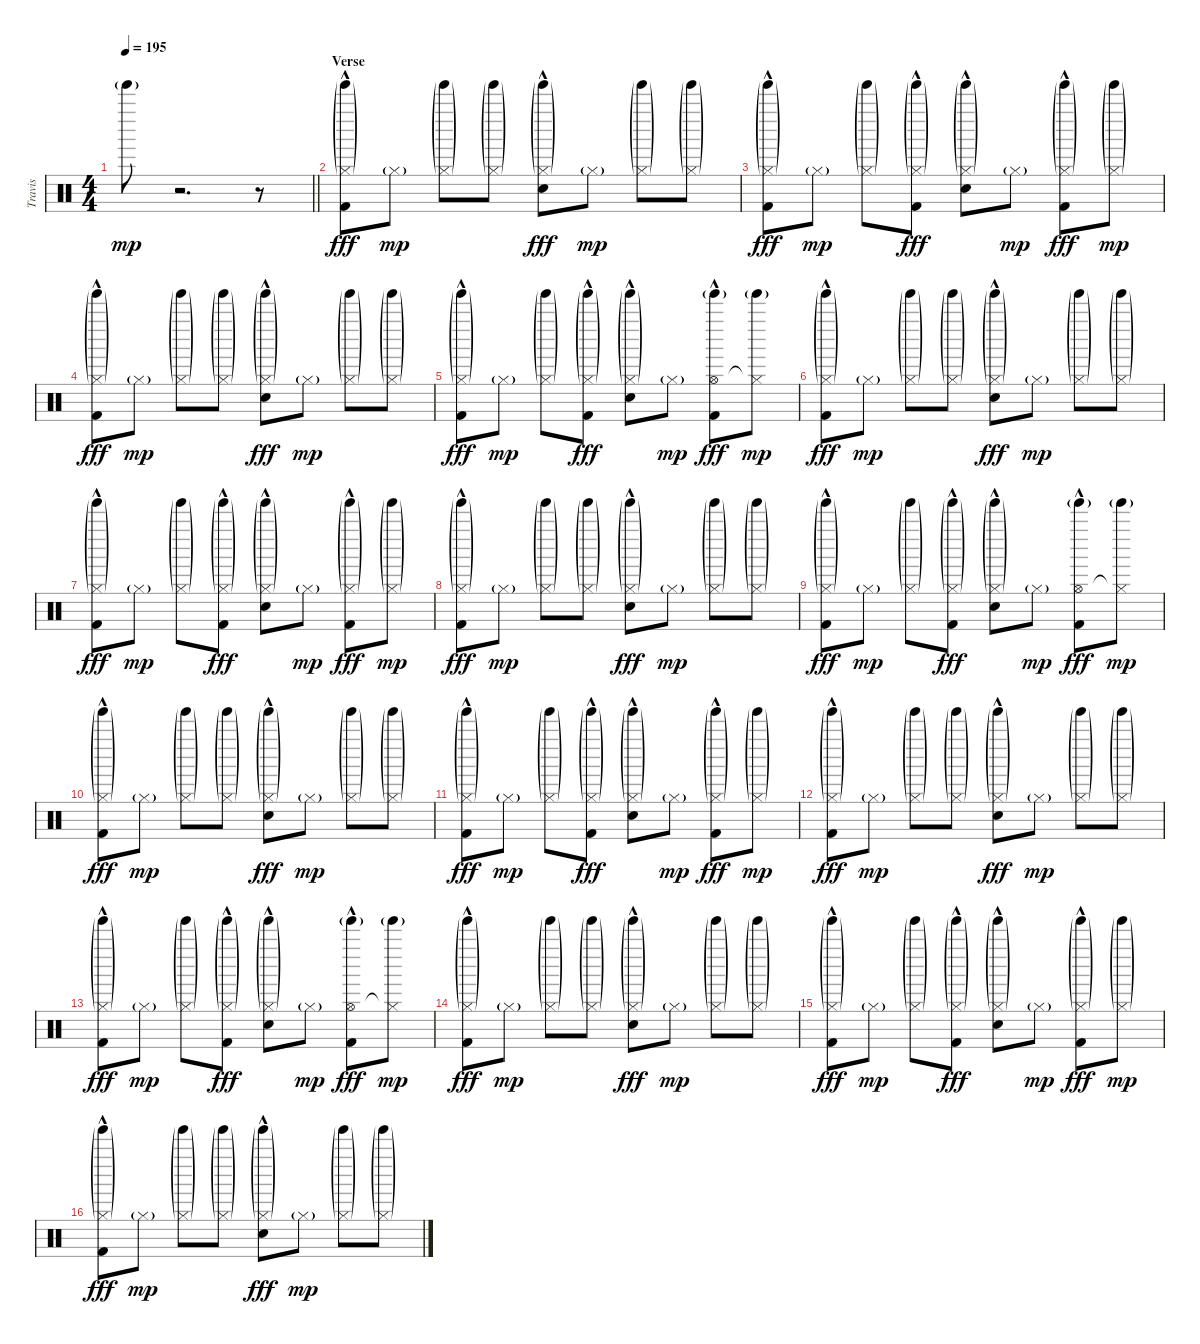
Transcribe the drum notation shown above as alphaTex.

\track ("Travis" "Travis") {instrument percussion}
\staff {score}
\articulation defaults
\ts (4 4)
\tempo 195
\clef neutral
\barLineRight lightlight
\ks c "Tinkle Bell (hit)"{g}.8{dy mp}
r.2{d} r.8 |
\section ("" "Verse")
("Tinkle Bell (hit)"{g} "Hi-Hat (closed)"{g} "Kick (hit) 2"{hac}).8{dy fff volume 9} "Hi-Hat (closed)"{g}.8{dy mp} ("Tinkle Bell (hit)"{g} "Hi-Hat (closed)"{g}).8 ("Tinkle Bell (hit)"{g} "Hi-Hat (closed)"{g}).8 ("Tinkle Bell (hit)"{g} "Hi-Hat (closed)"{g} "Electric Snare (hit)"{hac}).8{dy fff} "Hi-Hat (closed)"{g}.8{dy mp} ("Tinkle Bell (hit)"{g} "Hi-Hat (closed)"{g}).8 ("Tinkle Bell (hit)"{g} "Hi-Hat (closed)"{g}).8 |
("Tinkle Bell (hit)"{g} "Hi-Hat (closed)"{g} "Kick (hit) 2"{hac}).8{dy fff} "Hi-Hat (closed)"{g}.8{dy mp} ("Tinkle Bell (hit)"{g} "Hi-Hat (closed)"{g}).8 ("Tinkle Bell (hit)"{g} "Hi-Hat (closed)"{g} "Kick (hit) 2"{hac}).8{dy fff} ("Tinkle Bell (hit)"{g} "Hi-Hat (closed)"{g} "Electric Snare (hit)"{hac}).8 "Hi-Hat (closed)"{g}.8{dy mp} ("Tinkle Bell (hit)"{g} "Hi-Hat (closed)"{g} "Kick (hit) 2"{hac}).8{dy fff} ("Tinkle Bell (hit)"{g} "Hi-Hat (closed)"{g}).8{dy mp} |
("Tinkle Bell (hit)"{g} "Hi-Hat (closed)"{g} "Kick (hit) 2"{hac}).8{dy fff} "Hi-Hat (closed)"{g}.8{dy mp} ("Tinkle Bell (hit)"{g} "Hi-Hat (closed)"{g}).8 ("Tinkle Bell (hit)"{g} "Hi-Hat (closed)"{g}).8 ("Tinkle Bell (hit)"{g} "Hi-Hat (closed)"{g} "Electric Snare (hit)"{hac}).8{dy fff} "Hi-Hat (closed)"{g}.8{dy mp} ("Tinkle Bell (hit)"{g} "Hi-Hat (closed)"{g}).8 ("Tinkle Bell (hit)"{g} "Hi-Hat (closed)"{g}).8 |
("Tinkle Bell (hit)"{g} "Hi-Hat (closed)"{g} "Kick (hit) 2"{hac}).8{dy fff} "Hi-Hat (closed)"{g}.8{dy mp} ("Tinkle Bell (hit)"{g} "Hi-Hat (closed)"{g}).8 ("Tinkle Bell (hit)"{g} "Hi-Hat (closed)"{g} "Kick (hit) 2"{hac}).8{dy fff} ("Tinkle Bell (hit)"{g} "Hi-Hat (closed)"{g} "Electric Snare (hit)"{hac}).8 "Hi-Hat (closed)"{g}.8{dy mp} ("Tinkle Bell (hit)"{g} "Hi-Hat (open)" "Kick (hit) 2"{hac}).8{dy fff} ("Tinkle Bell (hit)"{g} "Hi-Hat (closed)"{t}).8{dy mp} |
("Tinkle Bell (hit)"{g} "Hi-Hat (closed)"{g} "Kick (hit) 2"{hac}).8{dy fff} "Hi-Hat (closed)"{g}.8{dy mp} ("Tinkle Bell (hit)"{g} "Hi-Hat (closed)"{g}).8 ("Tinkle Bell (hit)"{g} "Hi-Hat (closed)"{g}).8 ("Tinkle Bell (hit)"{g} "Hi-Hat (closed)"{g} "Electric Snare (hit)"{hac}).8{dy fff} "Hi-Hat (closed)"{g}.8{dy mp} ("Tinkle Bell (hit)"{g} "Hi-Hat (closed)"{g}).8 ("Tinkle Bell (hit)"{g} "Hi-Hat (closed)"{g}).8 |
("Tinkle Bell (hit)"{g} "Hi-Hat (closed)"{g} "Kick (hit) 2"{hac}).8{dy fff} "Hi-Hat (closed)"{g}.8{dy mp} ("Tinkle Bell (hit)"{g} "Hi-Hat (closed)"{g}).8 ("Tinkle Bell (hit)"{g} "Hi-Hat (closed)"{g} "Kick (hit) 2"{hac}).8{dy fff} ("Tinkle Bell (hit)"{g} "Hi-Hat (closed)"{g} "Electric Snare (hit)"{hac}).8 "Hi-Hat (closed)"{g}.8{dy mp} ("Tinkle Bell (hit)"{g} "Hi-Hat (closed)"{g} "Kick (hit) 2"{hac}).8{dy fff} ("Tinkle Bell (hit)"{g} "Hi-Hat (closed)"{g}).8{dy mp} |
("Tinkle Bell (hit)"{g} "Hi-Hat (closed)"{g} "Kick (hit) 2"{hac}).8{dy fff} "Hi-Hat (closed)"{g}.8{dy mp} ("Tinkle Bell (hit)"{g} "Hi-Hat (closed)"{g}).8 ("Tinkle Bell (hit)"{g} "Hi-Hat (closed)"{g}).8 ("Tinkle Bell (hit)"{g} "Hi-Hat (closed)"{g} "Electric Snare (hit)"{hac}).8{dy fff} "Hi-Hat (closed)"{g}.8{dy mp} ("Tinkle Bell (hit)"{g} "Hi-Hat (closed)"{g}).8 ("Tinkle Bell (hit)"{g} "Hi-Hat (closed)"{g}).8 |
("Tinkle Bell (hit)"{g} "Hi-Hat (closed)"{g} "Kick (hit) 2"{hac}).8{dy fff} "Hi-Hat (closed)"{g}.8{dy mp} ("Tinkle Bell (hit)"{g} "Hi-Hat (closed)"{g}).8 ("Tinkle Bell (hit)"{g} "Hi-Hat (closed)"{g} "Kick (hit) 2"{hac}).8{dy fff} ("Tinkle Bell (hit)"{g} "Hi-Hat (closed)"{g} "Electric Snare (hit)"{hac}).8 "Hi-Hat (closed)"{g}.8{dy mp} ("Tinkle Bell (hit)"{g} "Hi-Hat (open)" "Kick (hit) 2"{hac}).8{dy fff} ("Tinkle Bell (hit)"{g} "Hi-Hat (closed)"{t}).8{dy mp} |
("Tinkle Bell (hit)"{g} "Hi-Hat (closed)"{g} "Kick (hit) 2"{hac}).8{dy fff} "Hi-Hat (closed)"{g}.8{dy mp} ("Tinkle Bell (hit)"{g} "Hi-Hat (closed)"{g}).8 ("Tinkle Bell (hit)"{g} "Hi-Hat (closed)"{g}).8 ("Tinkle Bell (hit)"{g} "Hi-Hat (closed)"{g} "Electric Snare (hit)"{hac}).8{dy fff} "Hi-Hat (closed)"{g}.8{dy mp} ("Tinkle Bell (hit)"{g} "Hi-Hat (closed)"{g}).8 ("Tinkle Bell (hit)"{g} "Hi-Hat (closed)"{g}).8 |
("Tinkle Bell (hit)"{g} "Hi-Hat (closed)"{g} "Kick (hit) 2"{hac}).8{dy fff} "Hi-Hat (closed)"{g}.8{dy mp} ("Tinkle Bell (hit)"{g} "Hi-Hat (closed)"{g}).8 ("Tinkle Bell (hit)"{g} "Hi-Hat (closed)"{g} "Kick (hit) 2"{hac}).8{dy fff} ("Tinkle Bell (hit)"{g} "Hi-Hat (closed)"{g} "Electric Snare (hit)"{hac}).8 "Hi-Hat (closed)"{g}.8{dy mp} ("Tinkle Bell (hit)"{g} "Hi-Hat (closed)"{g} "Kick (hit) 2"{hac}).8{dy fff} ("Tinkle Bell (hit)"{g} "Hi-Hat (closed)"{g}).8{dy mp} |
("Tinkle Bell (hit)"{g} "Hi-Hat (closed)"{g} "Kick (hit) 2"{hac}).8{dy fff} "Hi-Hat (closed)"{g}.8{dy mp} ("Tinkle Bell (hit)"{g} "Hi-Hat (closed)"{g}).8 ("Tinkle Bell (hit)"{g} "Hi-Hat (closed)"{g}).8 ("Tinkle Bell (hit)"{g} "Hi-Hat (closed)"{g} "Electric Snare (hit)"{hac}).8{dy fff} "Hi-Hat (closed)"{g}.8{dy mp} ("Tinkle Bell (hit)"{g} "Hi-Hat (closed)"{g}).8 ("Tinkle Bell (hit)"{g} "Hi-Hat (closed)"{g}).8 |
("Tinkle Bell (hit)"{g} "Hi-Hat (closed)"{g} "Kick (hit) 2"{hac}).8{dy fff} "Hi-Hat (closed)"{g}.8{dy mp} ("Tinkle Bell (hit)"{g} "Hi-Hat (closed)"{g}).8 ("Tinkle Bell (hit)"{g} "Hi-Hat (closed)"{g} "Kick (hit) 2"{hac}).8{dy fff} ("Tinkle Bell (hit)"{g} "Hi-Hat (closed)"{g} "Electric Snare (hit)"{hac}).8 "Hi-Hat (closed)"{g}.8{dy mp} ("Tinkle Bell (hit)"{g} "Hi-Hat (open)" "Kick (hit) 2"{hac}).8{dy fff} ("Tinkle Bell (hit)"{g} "Hi-Hat (closed)"{t}).8{dy mp} |
("Tinkle Bell (hit)"{g} "Hi-Hat (closed)"{g} "Kick (hit) 2"{hac}).8{dy fff} "Hi-Hat (closed)"{g}.8{dy mp} ("Tinkle Bell (hit)"{g} "Hi-Hat (closed)"{g}).8 ("Tinkle Bell (hit)"{g} "Hi-Hat (closed)"{g}).8 ("Tinkle Bell (hit)"{g} "Hi-Hat (closed)"{g} "Electric Snare (hit)"{hac}).8{dy fff} "Hi-Hat (closed)"{g}.8{dy mp} ("Tinkle Bell (hit)"{g} "Hi-Hat (closed)"{g}).8 ("Tinkle Bell (hit)"{g} "Hi-Hat (closed)"{g}).8 |
("Tinkle Bell (hit)"{g} "Hi-Hat (closed)"{g} "Kick (hit) 2"{hac}).8{dy fff} "Hi-Hat (closed)"{g}.8{dy mp} ("Tinkle Bell (hit)"{g} "Hi-Hat (closed)"{g}).8 ("Tinkle Bell (hit)"{g} "Hi-Hat (closed)"{g} "Kick (hit) 2"{hac}).8{dy fff} ("Tinkle Bell (hit)"{g} "Hi-Hat (closed)"{g} "Electric Snare (hit)"{hac}).8 "Hi-Hat (closed)"{g}.8{dy mp} ("Tinkle Bell (hit)"{g} "Hi-Hat (closed)"{g} "Kick (hit) 2"{hac}).8{dy fff} ("Tinkle Bell (hit)"{g} "Hi-Hat (closed)"{g}).8{dy mp} |
("Tinkle Bell (hit)"{g} "Hi-Hat (closed)"{g} "Kick (hit) 2"{hac}).8{dy fff} "Hi-Hat (closed)"{g}.8{dy mp} ("Tinkle Bell (hit)"{g} "Hi-Hat (closed)"{g}).8 ("Tinkle Bell (hit)"{g} "Hi-Hat (closed)"{g}).8 ("Tinkle Bell (hit)"{g} "Hi-Hat (closed)"{g} "Electric Snare (hit)"{hac}).8{dy fff} "Hi-Hat (closed)"{g}.8{dy mp} ("Tinkle Bell (hit)"{g} "Hi-Hat (closed)"{g}).8 ("Tinkle Bell (hit)"{g} "Hi-Hat (closed)"{g}).8
